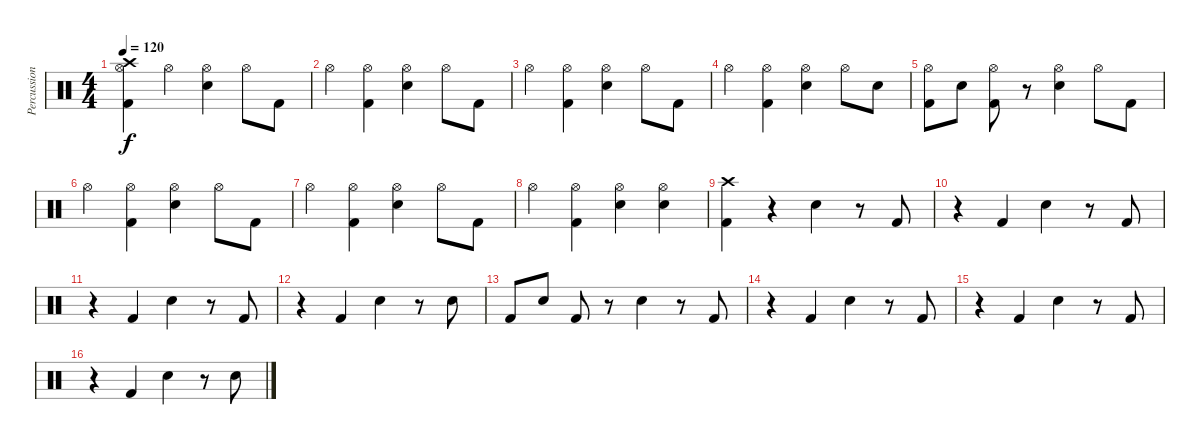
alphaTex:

\track ("Percussion" "Percussion") {instrument percussion}
\staff {score}
\articulation defaults
\ts (4 4)
\tempo 120
\clef neutral
\ks c
("Crash high (hit)" "Hi-Hat (open)" "Kick (hit) 2").4{dy f} "Hi-Hat (open)".4 ("Hi-Hat (open)" "Electric Snare (hit)").4 "Hi-Hat (open)".8 "Kick (hit) 2".8 |
"Hi-Hat (open)".4 ("Hi-Hat (open)" "Kick (hit) 2").4 ("Hi-Hat (open)" "Electric Snare (hit)").4 "Hi-Hat (open)".8 "Kick (hit) 2".8 |
"Hi-Hat (open)".4 ("Hi-Hat (open)" "Kick (hit) 2").4 ("Hi-Hat (open)" "Electric Snare (hit)").4 "Hi-Hat (open)".8 "Kick (hit) 2".8 |
"Hi-Hat (open)".4 ("Hi-Hat (open)" "Kick (hit) 2").4 ("Hi-Hat (open)" "Electric Snare (hit)").4 "Hi-Hat (open)".8 "Electric Snare (hit)".8 |
("Hi-Hat (open)" "Kick (hit) 2").8 "Electric Snare (hit)".8 ("Hi-Hat (open)" "Kick (hit) 2").8 r.8 ("Hi-Hat (open)" "Electric Snare (hit)").4 "Hi-Hat (open)".8 "Kick (hit) 2".8 |
"Hi-Hat (open)".4 ("Hi-Hat (open)" "Kick (hit) 2").4 ("Hi-Hat (open)" "Electric Snare (hit)").4 "Hi-Hat (open)".8 "Kick (hit) 2".8 |
"Hi-Hat (open)".4 ("Hi-Hat (open)" "Kick (hit) 2").4 ("Hi-Hat (open)" "Electric Snare (hit)").4 "Hi-Hat (open)".8 "Kick (hit) 2".8 |
"Hi-Hat (open)".4 ("Hi-Hat (open)" "Kick (hit) 2").4 ("Hi-Hat (open)" "Electric Snare (hit)").4 ("Hi-Hat (open)" "Electric Snare (hit)").4 |
("Crash high (hit)" "Kick (hit) 2").4 r.4 "Electric Snare (hit)".4 r.8 "Kick (hit) 2".8 |
r.4 "Kick (hit) 2".4 "Electric Snare (hit)".4 r.8 "Kick (hit) 2".8 |
r.4 "Kick (hit) 2".4 "Electric Snare (hit)".4 r.8 "Kick (hit) 2".8 |
r.4 "Kick (hit) 2".4 "Electric Snare (hit)".4 r.8 "Electric Snare (hit)".8 |
"Kick (hit) 2".8 "Electric Snare (hit)".8 "Kick (hit) 2".8 r.8 "Electric Snare (hit)".4 r.8 "Kick (hit) 2".8 |
r.4 "Kick (hit) 2".4 "Electric Snare (hit)".4 r.8 "Kick (hit) 2".8 |
r.4 "Kick (hit) 2".4 "Electric Snare (hit)".4 r.8 "Kick (hit) 2".8 |
r.4 "Kick (hit) 2".4 "Electric Snare (hit)".4 r.8 "Electric Snare (hit)".8
